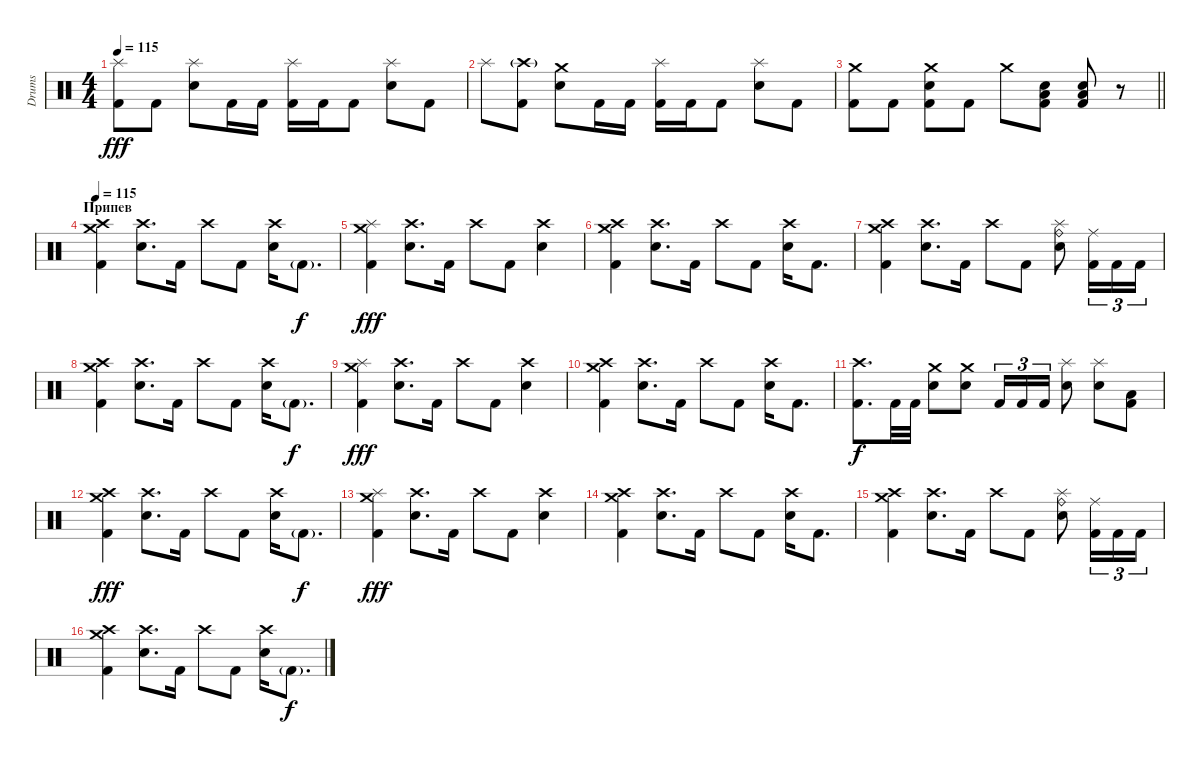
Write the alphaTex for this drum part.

\track ("Drums " "Drums ") {instrument percussion}
\staff {score}
\articulation defaults
\ts (4 4)
\tempo 115
\clef neutral
\ks c
("Splash (hit)" "Kick (hit) 2").8{dy fff} "Kick (hit) 2".8 ("Splash (hit)" "Electric Snare (hit)").8 "Kick (hit) 2".16 "Kick (hit) 2".16 ("Splash (hit)" "Kick (hit) 2").16 "Kick (hit) 2".16 "Kick (hit) 2".8 ("Splash (hit)" "Electric Snare (hit)").8 "Kick (hit) 2".8 |
"Splash (hit)".8 ("Crash high (hit)"{g} "Kick (hit) 2").8 ("Crash medium (hit)" "Electric Snare (hit)").8 "Kick (hit) 2".16 "Kick (hit) 2".16 ("Splash (hit)" "Kick (hit) 2").16 "Kick (hit) 2".16 "Kick (hit) 2".8 ("Splash (hit)" "Electric Snare (hit)").8 "Kick (hit) 2".8 |
\barLineRight lightlight
("Crash medium (hit)" "Kick (hit) 2").8 "Kick (hit) 2".8 ("Crash medium (hit)" "Electric Snare (hit)" "Kick (hit) 2").8 "Kick (hit) 2".8 "Crash medium (hit)".8 ("Low Tom (hit)" "Electric Snare (hit)" "Kick (hit) 2").8 ("Low Tom (hit)" "Electric Snare (hit)" "Kick (hit) 2").8 r.8 |
\section ("" "Припев")
\tempo 115
("Crash medium (hit)" "Crash high (hit)" "Kick (hit) 2").4 ("Crash high (hit)" "Electric Snare (hit)").8{d} "Kick (hit) 2".16 "Crash high (hit)".8 "Kick (hit) 2".8 ("Crash high (hit)" "Electric Snare (hit)").16 "Kick (hit) 2"{g}.8{d dy f} |
("Crash medium (hit)" "Splash (hit)" "Kick (hit) 2").4{dy fff} ("Crash high (hit)" "Electric Snare (hit)").8{d} "Kick (hit) 2".16 "Crash high (hit)".8 "Kick (hit) 2".8 ("Crash high (hit)" "Electric Snare (hit)").4 |
("Crash medium (hit)" "Crash high (hit)" "Kick (hit) 2").4 ("Crash high (hit)" "Electric Snare (hit)").8{d} "Kick (hit) 2".16 "Crash high (hit)".8 "Kick (hit) 2".8 ("Crash high (hit)" "Electric Snare (hit)").16 "Kick (hit) 2".8{d} |
("Crash medium (hit)" "Crash high (hit)" "Kick (hit) 2").4 ("Crash high (hit)" "Electric Snare (hit)").8{d} "Kick (hit) 2".16 "Crash high (hit)".8 "Kick (hit) 2".8 ("Ride (bell)" "Splash (hit)" "Electric Snare (hit)").8 ("Ride (middle)" "Kick (hit) 2").16{tu (3 2)} "Kick (hit) 2".16{tu (3 2)} "Kick (hit) 2".16{tu (3 2)} |
("Crash medium (hit)" "Crash high (hit)" "Kick (hit) 2").4 ("Crash high (hit)" "Electric Snare (hit)").8{d} "Kick (hit) 2".16 "Crash high (hit)".8 "Kick (hit) 2".8 ("Crash high (hit)" "Electric Snare (hit)").16 "Kick (hit) 2"{g}.8{d dy f} |
("Crash medium (hit)" "Splash (hit)" "Kick (hit) 2").4{dy fff} ("Crash high (hit)" "Electric Snare (hit)").8{d} "Kick (hit) 2".16 "Crash high (hit)".8 "Kick (hit) 2".8 ("Crash high (hit)" "Electric Snare (hit)").4 |
("Crash medium (hit)" "Crash high (hit)" "Kick (hit) 2").4 ("Crash high (hit)" "Electric Snare (hit)").8{d} "Kick (hit) 2".16 "Crash high (hit)".8 "Kick (hit) 2".8 ("Crash high (hit)" "Electric Snare (hit)").16 "Kick (hit) 2".8{d} |
("Crash high (hit)" "Kick (hit) 2").8{d dy f} "Kick (hit) 2".32 "Kick (hit) 2".32 ("Crash medium (hit)" "Electric Snare (hit)").8 ("Crash medium (hit)" "Electric Snare (hit)").8 "Kick (hit) 2".16{tu (3 2)} "Kick (hit) 2".16{tu (3 2)} "Kick (hit) 2".16{tu (3 2)} ("Splash (hit)" "Electric Snare (hit)").8 ("Splash (hit)" "Electric Snare (hit)").8 ("Low Floor Tom (hit)" "Kick (hit) 2").8 |
("Crash medium (hit)" "Crash high (hit)" "Kick (hit) 2").4{dy fff} ("Crash high (hit)" "Electric Snare (hit)").8{d} "Kick (hit) 2".16 "Crash high (hit)".8 "Kick (hit) 2".8 ("Crash high (hit)" "Electric Snare (hit)").16 "Kick (hit) 2"{g}.8{d dy f} |
("Crash medium (hit)" "Splash (hit)" "Kick (hit) 2").4{dy fff} ("Crash high (hit)" "Electric Snare (hit)").8{d} "Kick (hit) 2".16 "Crash high (hit)".8 "Kick (hit) 2".8 ("Crash high (hit)" "Electric Snare (hit)").4 |
("Crash medium (hit)" "Crash high (hit)" "Kick (hit) 2").4 ("Crash high (hit)" "Electric Snare (hit)").8{d} "Kick (hit) 2".16 "Crash high (hit)".8 "Kick (hit) 2".8 ("Crash high (hit)" "Electric Snare (hit)").16 "Kick (hit) 2".8{d} |
("Crash medium (hit)" "Crash high (hit)" "Kick (hit) 2").4 ("Crash high (hit)" "Electric Snare (hit)").8{d} "Kick (hit) 2".16 "Crash high (hit)".8 "Kick (hit) 2".8 ("Ride (bell)" "Splash (hit)" "Electric Snare (hit)").8 ("Ride (middle)" "Kick (hit) 2").16{tu (3 2)} "Kick (hit) 2".16{tu (3 2)} "Kick (hit) 2".16{tu (3 2)} |
("Crash medium (hit)" "Crash high (hit)" "Kick (hit) 2").4 ("Crash high (hit)" "Electric Snare (hit)").8{d} "Kick (hit) 2".16 "Crash high (hit)".8 "Kick (hit) 2".8 ("Crash high (hit)" "Electric Snare (hit)").16 "Kick (hit) 2"{g}.8{d dy f}
